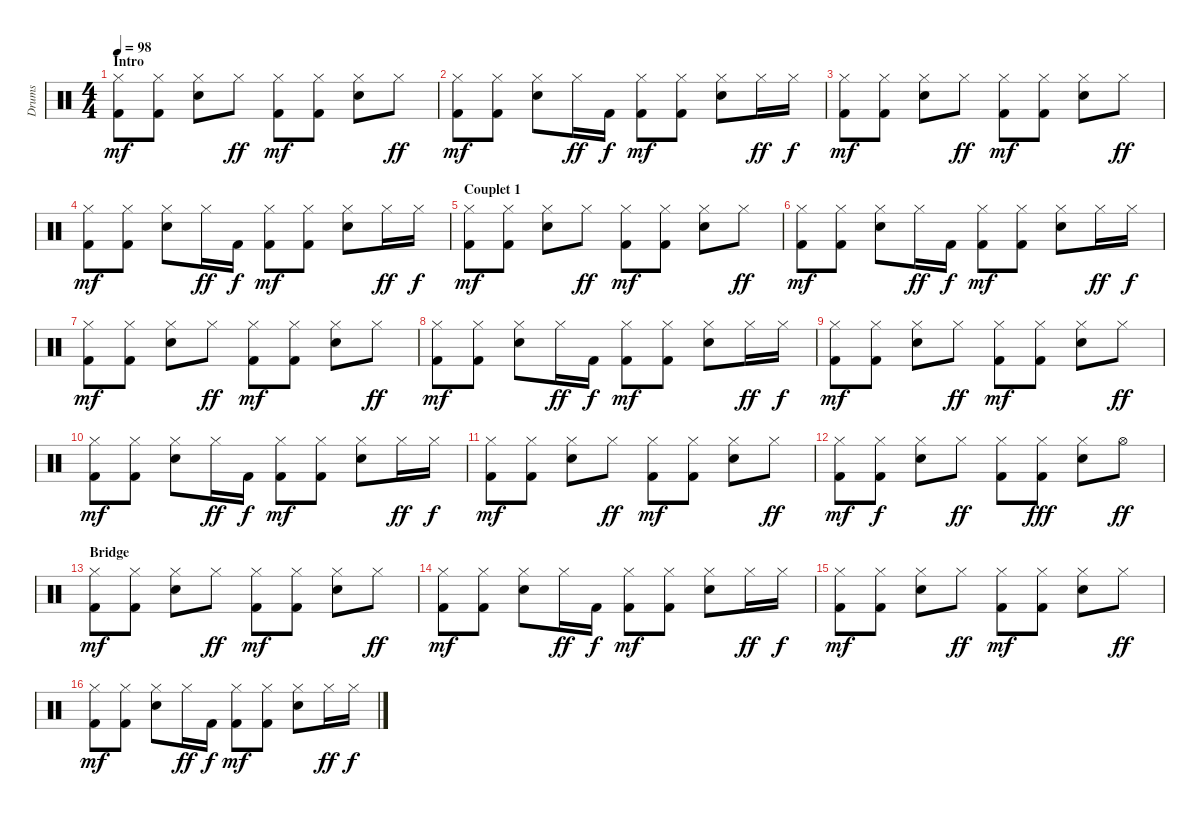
\track ("Drums" "Drums") {instrument percussion}
\staff {score}
\articulation defaults
\ts (4 4)
\section ("" "Intro")
\tempo 98
\clef neutral
\ks c
("Hi-Hat (closed)" "Kick (hit) 2").8{dy mf} ("Hi-Hat (closed)" "Kick (hit) 2").8 ("Hi-Hat (closed)" "Snare (hit) 2").8 "Hi-Hat (closed)".8{dy ff} ("Hi-Hat (closed)" "Kick (hit) 2").8{dy mf} ("Hi-Hat (closed)" "Kick (hit) 2").8 ("Hi-Hat (closed)" "Snare (hit) 2").8 "Hi-Hat (closed)".8{dy ff} |
("Hi-Hat (closed)" "Kick (hit) 2").8{dy mf} ("Hi-Hat (closed)" "Kick (hit) 2").8 ("Hi-Hat (closed)" "Snare (hit) 2").8 "Hi-Hat (closed)".16{dy ff} "Kick (hit) 2".16{dy f} ("Hi-Hat (closed)" "Kick (hit) 2").8{dy mf} ("Hi-Hat (closed)" "Kick (hit) 2").8 ("Hi-Hat (closed)" "Snare (hit) 2").8 "Hi-Hat (closed)".16{dy ff} "Hi-Hat (closed)".16{dy f} |
("Hi-Hat (closed)" "Kick (hit) 2").8{dy mf} ("Hi-Hat (closed)" "Kick (hit) 2").8 ("Hi-Hat (closed)" "Snare (hit) 2").8 "Hi-Hat (closed)".8{dy ff} ("Hi-Hat (closed)" "Kick (hit) 2").8{dy mf} ("Hi-Hat (closed)" "Kick (hit) 2").8 ("Hi-Hat (closed)" "Snare (hit) 2").8 "Hi-Hat (closed)".8{dy ff} |
("Hi-Hat (closed)" "Kick (hit) 2").8{dy mf} ("Hi-Hat (closed)" "Kick (hit) 2").8 ("Hi-Hat (closed)" "Snare (hit) 2").8 "Hi-Hat (closed)".16{dy ff} "Kick (hit) 2".16{dy f} ("Hi-Hat (closed)" "Kick (hit) 2").8{dy mf} ("Hi-Hat (closed)" "Kick (hit) 2").8 ("Hi-Hat (closed)" "Snare (hit) 2").8 "Hi-Hat (closed)".16{dy ff} "Hi-Hat (closed)".16{dy f} |
\section ("" "Couplet 1")
("Hi-Hat (closed)" "Kick (hit) 2").8{dy mf} ("Hi-Hat (closed)" "Kick (hit) 2").8 ("Hi-Hat (closed)" "Snare (hit) 2").8 "Hi-Hat (closed)".8{dy ff} ("Hi-Hat (closed)" "Kick (hit) 2").8{dy mf} ("Hi-Hat (closed)" "Kick (hit) 2").8 ("Hi-Hat (closed)" "Snare (hit) 2").8 "Hi-Hat (closed)".8{dy ff} |
("Hi-Hat (closed)" "Kick (hit) 2").8{dy mf} ("Hi-Hat (closed)" "Kick (hit) 2").8 ("Hi-Hat (closed)" "Snare (hit) 2").8 "Hi-Hat (closed)".16{dy ff} "Kick (hit) 2".16{dy f} ("Hi-Hat (closed)" "Kick (hit) 2").8{dy mf} ("Hi-Hat (closed)" "Kick (hit) 2").8 ("Hi-Hat (closed)" "Snare (hit) 2").8 "Hi-Hat (closed)".16{dy ff} "Hi-Hat (closed)".16{dy f} |
("Hi-Hat (closed)" "Kick (hit) 2").8{dy mf} ("Hi-Hat (closed)" "Kick (hit) 2").8 ("Hi-Hat (closed)" "Snare (hit) 2").8 "Hi-Hat (closed)".8{dy ff} ("Hi-Hat (closed)" "Kick (hit) 2").8{dy mf} ("Hi-Hat (closed)" "Kick (hit) 2").8 ("Hi-Hat (closed)" "Snare (hit) 2").8 "Hi-Hat (closed)".8{dy ff} |
("Hi-Hat (closed)" "Kick (hit) 2").8{dy mf} ("Hi-Hat (closed)" "Kick (hit) 2").8 ("Hi-Hat (closed)" "Snare (hit) 2").8 "Hi-Hat (closed)".16{dy ff} "Kick (hit) 2".16{dy f} ("Hi-Hat (closed)" "Kick (hit) 2").8{dy mf} ("Hi-Hat (closed)" "Kick (hit) 2").8 ("Hi-Hat (closed)" "Snare (hit) 2").8 "Hi-Hat (closed)".16{dy ff} "Hi-Hat (closed)".16{dy f} |
("Hi-Hat (closed)" "Kick (hit) 2").8{dy mf} ("Hi-Hat (closed)" "Kick (hit) 2").8 ("Hi-Hat (closed)" "Snare (hit) 2").8 "Hi-Hat (closed)".8{dy ff} ("Hi-Hat (closed)" "Kick (hit) 2").8{dy mf} ("Hi-Hat (closed)" "Kick (hit) 2").8 ("Hi-Hat (closed)" "Snare (hit) 2").8 "Hi-Hat (closed)".8{dy ff} |
("Hi-Hat (closed)" "Kick (hit) 2").8{dy mf} ("Hi-Hat (closed)" "Kick (hit) 2").8 ("Hi-Hat (closed)" "Snare (hit) 2").8 "Hi-Hat (closed)".16{dy ff} "Kick (hit) 2".16{dy f} ("Hi-Hat (closed)" "Kick (hit) 2").8{dy mf} ("Hi-Hat (closed)" "Kick (hit) 2").8 ("Hi-Hat (closed)" "Snare (hit) 2").8 "Hi-Hat (closed)".16{dy ff} "Hi-Hat (closed)".16{dy f} |
("Hi-Hat (closed)" "Kick (hit) 2").8{dy mf} ("Hi-Hat (closed)" "Kick (hit) 2").8 ("Hi-Hat (closed)" "Snare (hit) 2").8 "Hi-Hat (closed)".8{dy ff} ("Hi-Hat (closed)" "Kick (hit) 2").8{dy mf} ("Hi-Hat (closed)" "Kick (hit) 2").8 ("Hi-Hat (closed)" "Snare (hit) 2").8 "Hi-Hat (closed)".8{dy ff} |
("Hi-Hat (closed)" "Kick (hit) 2").8{dy mf} ("Hi-Hat (closed)" "Kick (hit) 2").8{dy f} ("Hi-Hat (closed)" "Snare (hit) 2").8 "Hi-Hat (closed)".8{dy ff} ("Hi-Hat (closed)" "Kick (hit) 2").8 ("Hi-Hat (closed)" "Kick (hit) 2").8{dy fff} ("Hi-Hat (closed)" "Snare (hit) 2").8 "Hi-Hat (open)".8{dy ff} |
\section ("" "Bridge")
("Hi-Hat (closed)" "Kick (hit) 2").8{dy mf} ("Hi-Hat (closed)" "Kick (hit) 2").8 ("Hi-Hat (closed)" "Snare (hit) 2").8 "Hi-Hat (closed)".8{dy ff} ("Hi-Hat (closed)" "Kick (hit) 2").8{dy mf} ("Hi-Hat (closed)" "Kick (hit) 2").8 ("Hi-Hat (closed)" "Snare (hit) 2").8 "Hi-Hat (closed)".8{dy ff} |
("Hi-Hat (closed)" "Kick (hit) 2").8{dy mf} ("Hi-Hat (closed)" "Kick (hit) 2").8 ("Hi-Hat (closed)" "Snare (hit) 2").8 "Hi-Hat (closed)".16{dy ff} "Kick (hit) 2".16{dy f} ("Hi-Hat (closed)" "Kick (hit) 2").8{dy mf} ("Hi-Hat (closed)" "Kick (hit) 2").8 ("Hi-Hat (closed)" "Snare (hit) 2").8 "Hi-Hat (closed)".16{dy ff} "Hi-Hat (closed)".16{dy f} |
("Hi-Hat (closed)" "Kick (hit) 2").8{dy mf} ("Hi-Hat (closed)" "Kick (hit) 2").8 ("Hi-Hat (closed)" "Snare (hit) 2").8 "Hi-Hat (closed)".8{dy ff} ("Hi-Hat (closed)" "Kick (hit) 2").8{dy mf} ("Hi-Hat (closed)" "Kick (hit) 2").8 ("Hi-Hat (closed)" "Snare (hit) 2").8 "Hi-Hat (closed)".8{dy ff} |
("Hi-Hat (closed)" "Kick (hit) 2").8{dy mf} ("Hi-Hat (closed)" "Kick (hit) 2").8 ("Hi-Hat (closed)" "Snare (hit) 2").8 "Hi-Hat (closed)".16{dy ff} "Kick (hit) 2".16{dy f} ("Hi-Hat (closed)" "Kick (hit) 2").8{dy mf} ("Hi-Hat (closed)" "Kick (hit) 2").8 ("Hi-Hat (closed)" "Snare (hit) 2").8 "Hi-Hat (closed)".16{dy ff} "Hi-Hat (closed)".16{dy f}
